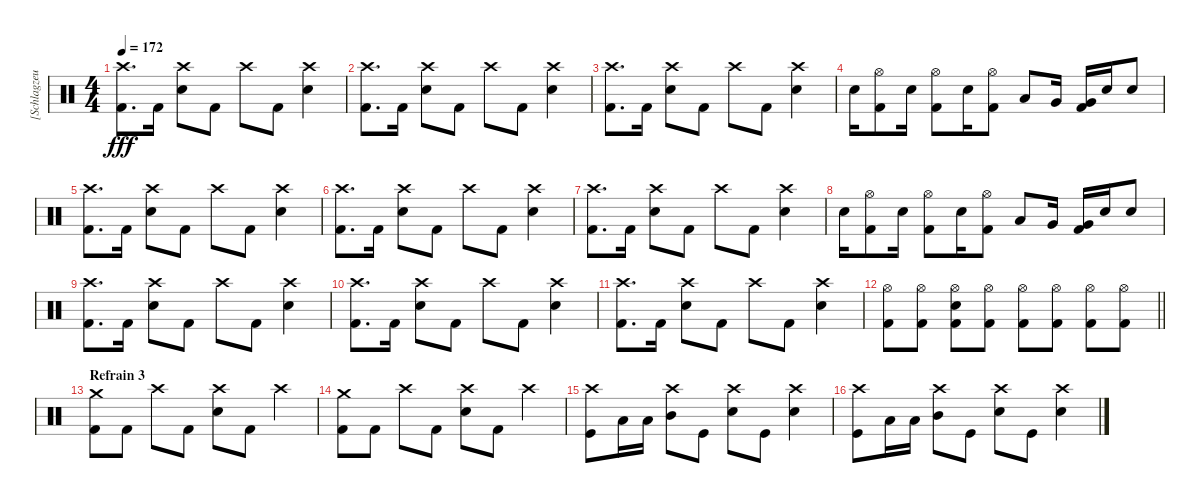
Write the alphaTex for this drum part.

\track ("[Schlagzeug]" "[Schlagzeu") {instrument percussion}
\staff {score}
\articulation defaults
\ts (4 4)
\tempo 172
\clef neutral
\ks c
("Crash high (hit)" "Kick (hit) 2").8{d dy fff} "Kick (hit) 2".16 ("Crash high (hit)" "Electric Snare (hit)").8 "Kick (hit) 2".8 "Crash high (hit)".8 "Kick (hit) 2".8 ("Crash high (hit)" "Electric Snare (hit)").4 |
("Crash high (hit)" "Kick (hit) 2").8{d} "Kick (hit) 2".16 ("Crash high (hit)" "Electric Snare (hit)").8 "Kick (hit) 2".8 "Crash high (hit)".8 "Kick (hit) 2".8 ("Crash high (hit)" "Electric Snare (hit)").4 |
("Crash high (hit)" "Kick (hit) 2").8{d} "Kick (hit) 2".16 ("Crash high (hit)" "Electric Snare (hit)").8 "Kick (hit) 2".8 "Crash high (hit)".8 "Kick (hit) 2".8 ("Crash high (hit)" "Electric Snare (hit)").4 |
"Electric Snare (hit)".16 ("Hi-Hat (open)" "Kick (hit) 2").8 "Electric Snare (hit)".16 ("Hi-Hat (open)" "Kick (hit) 2").8 "Electric Snare (hit)".16 ("Hi-Hat (open)" "Kick (hit) 2").8 "Low Tom (hit)".8 "Very Low Tom (hit)".16 ("Very Low Tom (hit)" "Kick (hit) 2").16 "Electric Snare (hit)".16 "Electric Snare (hit)".8 |
("Crash high (hit)" "Kick (hit) 2").8{d} "Kick (hit) 2".16 ("Crash high (hit)" "Electric Snare (hit)").8 "Kick (hit) 2".8 "Crash high (hit)".8 "Kick (hit) 2".8 ("Crash high (hit)" "Electric Snare (hit)").4 |
("Crash high (hit)" "Kick (hit) 2").8{d} "Kick (hit) 2".16 ("Crash high (hit)" "Electric Snare (hit)").8 "Kick (hit) 2".8 "Crash high (hit)".8 "Kick (hit) 2".8 ("Crash high (hit)" "Electric Snare (hit)").4 |
("Crash high (hit)" "Kick (hit) 2").8{d} "Kick (hit) 2".16 ("Crash high (hit)" "Electric Snare (hit)").8 "Kick (hit) 2".8 "Crash high (hit)".8 "Kick (hit) 2".8 ("Crash high (hit)" "Electric Snare (hit)").4 |
"Electric Snare (hit)".16 ("Hi-Hat (open)" "Kick (hit) 2").8 "Electric Snare (hit)".16 ("Hi-Hat (open)" "Kick (hit) 2").8 "Electric Snare (hit)".16 ("Hi-Hat (open)" "Kick (hit) 2").8 "Low Tom (hit)".8 "Very Low Tom (hit)".16 ("Very Low Tom (hit)" "Kick (hit) 2").16 "Electric Snare (hit)".16 "Electric Snare (hit)".8 |
("Crash high (hit)" "Kick (hit) 2").8{d} "Kick (hit) 2".16 ("Crash high (hit)" "Electric Snare (hit)").8 "Kick (hit) 2".8 "Crash high (hit)".8 "Kick (hit) 2".8 ("Crash high (hit)" "Electric Snare (hit)").4 |
("Crash high (hit)" "Kick (hit) 2").8{d} "Kick (hit) 2".16 ("Crash high (hit)" "Electric Snare (hit)").8 "Kick (hit) 2".8 "Crash high (hit)".8 "Kick (hit) 2".8 ("Crash high (hit)" "Electric Snare (hit)").4 |
("Crash high (hit)" "Kick (hit) 2").8{d} "Kick (hit) 2".16 ("Crash high (hit)" "Electric Snare (hit)").8 "Kick (hit) 2".8 "Crash high (hit)".8 "Kick (hit) 2".8 ("Crash high (hit)" "Electric Snare (hit)").4 |
\barLineRight lightlight
("Hi-Hat (open)" "Kick (hit) 2").8 ("Hi-Hat (open)" "Kick (hit) 2").8 ("Hi-Hat (open)" "Electric Snare (hit)" "Kick (hit) 2").8 ("Hi-Hat (open)" "Kick (hit) 2").8 ("Hi-Hat (open)" "Kick (hit) 2").8 ("Hi-Hat (open)" "Kick (hit) 2").8 ("Hi-Hat (open)" "Kick (hit) 2").8 ("Hi-Hat (open)" "Kick (hit) 2").8 |
\section ("" "Refrain 3")
("Crash medium (hit)" "Kick (hit) 2").8 "Kick (hit) 2".8 "Crash high (hit)".8 "Kick (hit) 2".8 ("Crash high (hit)" "Electric Snare (hit)").8 "Kick (hit) 2".8 "Crash high (hit)".4 |
("Crash medium (hit)" "Kick (hit) 2").8 "Kick (hit) 2".8 "Crash high (hit)".8 "Kick (hit) 2".8 ("Crash high (hit)" "Electric Snare (hit)").8 "Kick (hit) 2".8 "Crash high (hit)".4 |
("Kick (hit)" "Crash high (hit)").8 "Low Floor Tom (hit)".16 "Low Floor Tom (hit)".16 ("Mid Tom (hit)" "Crash high (hit)").8 "Kick (hit)".8 ("Electric Snare (hit)" "Crash high (hit)").8 "Kick (hit)".8 ("Electric Snare (hit)" "Crash high (hit)").4 |
("Kick (hit)" "Crash high (hit)").8 "Low Floor Tom (hit)".16 "Low Floor Tom (hit)".16 ("Mid Tom (hit)" "Crash high (hit)").8 "Kick (hit)".8 ("Electric Snare (hit)" "Crash high (hit)").8 "Kick (hit)".8 ("Electric Snare (hit)" "Crash high (hit)").4
